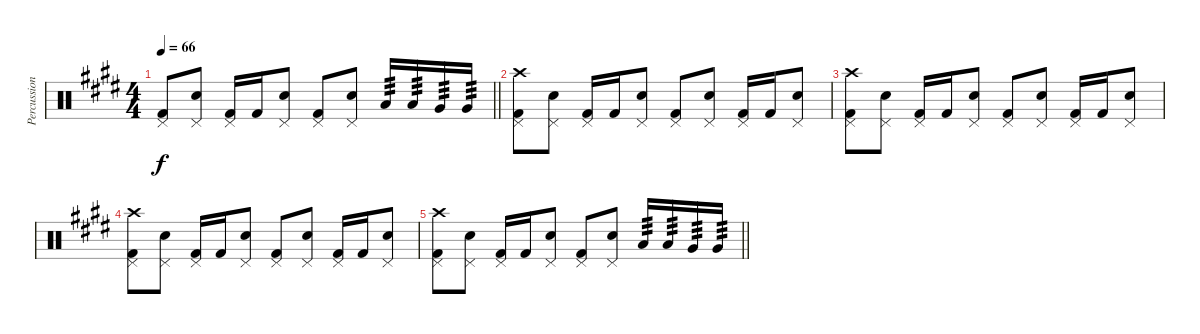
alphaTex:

\track ("Percussion" "Percussion") {instrument percussion}
\staff {score}
\articulation defaults
\ts (4 4)
\tempo 66
\clef neutral
\barLineRight lightlight
\ks e
("Pedal Hi-Hat (hit)" "Kick (hit) 2").8{dy f} ("Pedal Hi-Hat (hit)" "Electric Snare (hit)").8 ("Pedal Hi-Hat (hit)" "Kick (hit) 2").16 "Kick (hit) 2".16 ("Pedal Hi-Hat (hit)" "Electric Snare (hit)").8 ("Pedal Hi-Hat (hit)" "Kick (hit) 2").8 ("Pedal Hi-Hat (hit)" "Electric Snare (hit)").8 "Low Tom (hit)".16{tp 3} "Low Tom (hit)".16{tp 3} "Very Low Tom (hit)".16{tp 3} "Very Low Tom (hit)".16{tp 3} |
("Crash high (hit)" "Pedal Hi-Hat (hit)" "Kick (hit) 2").8{volume 0} ("Pedal Hi-Hat (hit)" "Electric Snare (hit)").8 ("Pedal Hi-Hat (hit)" "Kick (hit) 2").16 "Kick (hit) 2".16 ("Pedal Hi-Hat (hit)" "Electric Snare (hit)").8 ("Pedal Hi-Hat (hit)" "Kick (hit) 2").8 ("Pedal Hi-Hat (hit)" "Electric Snare (hit)").8 ("Pedal Hi-Hat (hit)" "Kick (hit) 2").16 "Kick (hit) 2".16 ("Pedal Hi-Hat (hit)" "Electric Snare (hit)").8 |
("Crash high (hit)" "Pedal Hi-Hat (hit)" "Kick (hit) 2").8 ("Pedal Hi-Hat (hit)" "Electric Snare (hit)").8 ("Pedal Hi-Hat (hit)" "Kick (hit) 2").16 "Kick (hit) 2".16 ("Pedal Hi-Hat (hit)" "Electric Snare (hit)").8 ("Pedal Hi-Hat (hit)" "Kick (hit) 2").8 ("Pedal Hi-Hat (hit)" "Electric Snare (hit)").8 ("Pedal Hi-Hat (hit)" "Kick (hit) 2").16 "Kick (hit) 2".16 ("Pedal Hi-Hat (hit)" "Electric Snare (hit)").8 |
("Crash high (hit)" "Pedal Hi-Hat (hit)" "Kick (hit) 2").8 ("Pedal Hi-Hat (hit)" "Electric Snare (hit)").8 ("Pedal Hi-Hat (hit)" "Kick (hit) 2").16 "Kick (hit) 2".16 ("Pedal Hi-Hat (hit)" "Electric Snare (hit)").8 ("Pedal Hi-Hat (hit)" "Kick (hit) 2").8 ("Pedal Hi-Hat (hit)" "Electric Snare (hit)").8 ("Pedal Hi-Hat (hit)" "Kick (hit) 2").16 "Kick (hit) 2".16 ("Pedal Hi-Hat (hit)" "Electric Snare (hit)").8 |
\barLineRight lightlight
("Crash high (hit)" "Pedal Hi-Hat (hit)" "Kick (hit) 2").8 ("Pedal Hi-Hat (hit)" "Electric Snare (hit)").8 ("Pedal Hi-Hat (hit)" "Kick (hit) 2").16 "Kick (hit) 2".16 ("Pedal Hi-Hat (hit)" "Electric Snare (hit)").8 ("Pedal Hi-Hat (hit)" "Kick (hit) 2").8 ("Pedal Hi-Hat (hit)" "Electric Snare (hit)").8 "Low Tom (hit)".16{tp 3} "Low Tom (hit)".16{tp 3} "Very Low Tom (hit)".16{tp 3} "Very Low Tom (hit)".16{tp 3}
